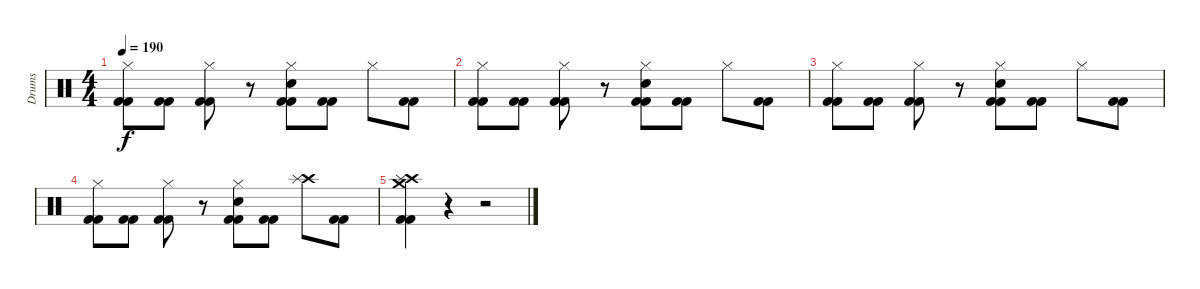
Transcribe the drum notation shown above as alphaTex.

\track ("Drums" "Drums") {instrument percussion}
\staff {score}
\articulation defaults
\ts (4 4)
\tempo 190
\clef neutral
\ks c
("Hi-Hat (closed)" "Kick (hit) 2" "Kick (hit) 2").8{dy f} ("Kick (hit) 2" "Kick (hit) 2").8 ("Hi-Hat (closed)" "Kick (hit) 2" "Kick (hit) 2").8 r.8 ("Hi-Hat (closed)" "Snare (hit) 2" "Kick (hit) 2" "Kick (hit) 2").8 ("Kick (hit) 2" "Kick (hit) 2").8 "Hi-Hat (closed)".8 ("Kick (hit) 2" "Kick (hit) 2").8 |
("Hi-Hat (closed)" "Kick (hit) 2" "Kick (hit) 2").8 ("Kick (hit) 2" "Kick (hit) 2").8 ("Hi-Hat (closed)" "Kick (hit) 2" "Kick (hit) 2").8 r.8 ("Hi-Hat (closed)" "Snare (hit) 2" "Kick (hit) 2" "Kick (hit) 2").8 ("Kick (hit) 2" "Kick (hit) 2").8 "Hi-Hat (closed)".8 ("Kick (hit) 2" "Kick (hit) 2").8 |
("Hi-Hat (closed)" "Kick (hit) 2" "Kick (hit) 2").8 ("Kick (hit) 2" "Kick (hit) 2").8 ("Hi-Hat (closed)" "Kick (hit) 2" "Kick (hit) 2").8 r.8 ("Hi-Hat (closed)" "Snare (hit) 2" "Kick (hit) 2" "Kick (hit) 2").8 ("Kick (hit) 2" "Kick (hit) 2").8 "Hi-Hat (closed)".8 ("Kick (hit) 2" "Kick (hit) 2").8 |
("Hi-Hat (closed)" "Kick (hit) 2" "Kick (hit) 2").8 ("Kick (hit) 2" "Kick (hit) 2").8 ("Hi-Hat (closed)" "Kick (hit) 2" "Kick (hit) 2").8 r.8 ("Hi-Hat (closed)" "Snare (hit) 2" "Kick (hit) 2" "Kick (hit) 2").8 ("Kick (hit) 2" "Kick (hit) 2").8 ("Crash high (hit)" "Splash (hit)").8 ("Kick (hit) 2" "Kick (hit) 2").8 |
("Crash medium (hit)" "Crash high (hit)" "Splash (hit)" "Kick (hit) 2" "Kick (hit) 2").4 r.4 r.2
